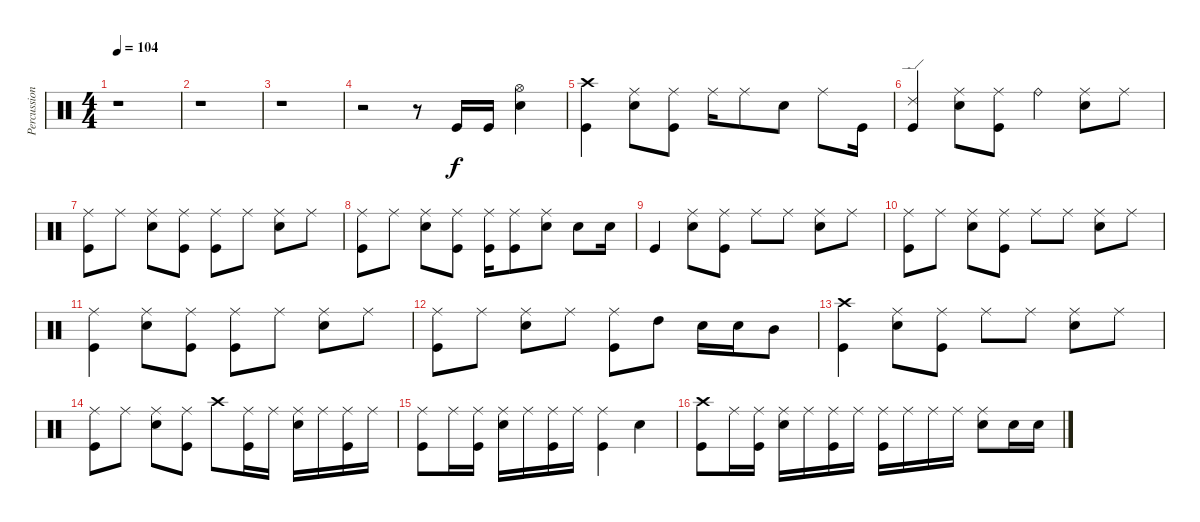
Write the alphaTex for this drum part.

\track ("Percussion" "Percussion") {instrument percussion}
\staff {score}
\articulation defaults
\ts (4 4)
\tempo 104
\clef neutral
\ks c
r.1{dy f} |
r.1 |
r.1 |
r.2 r.8 "Kick (hit)".16 "Kick (hit)".16 ("Hi-Hat (open)" "Snare (hit) 2").4 |
("Crash high (hit)" "Kick (hit)").4 ("Ride (middle)" "Snare (hit) 2").8 ("Ride (middle)" "Kick (hit)").8 "Ride (middle)".16 "Ride (middle)".8 "Snare (hit) 2".8 "Ride (middle)".8 "Kick (hit)".16 |
("Ride (edge) 2" "Kick (hit)").4 ("Ride (middle)" "Snare (hit) 2").8 ("Ride (middle)" "Kick (hit)").8 "Ride (bell)".4 ("Ride (middle)" "Snare (hit) 2").8 "Ride (middle)".8 |
("Ride (middle)" "Kick (hit)").8 "Ride (middle)".8 ("Ride (middle)" "Snare (hit) 2").8 ("Ride (middle)" "Kick (hit)").8 ("Ride (middle)" "Kick (hit)").8 "Ride (middle)".8 ("Ride (middle)" "Snare (hit) 2").8 "Ride (middle)".8 |
("Ride (middle)" "Kick (hit)").8 "Ride (middle)".8 ("Ride (middle)" "Snare (hit) 2").8 ("Ride (middle)" "Kick (hit)").8 ("Ride (middle)" "Kick (hit)").16 ("Ride (middle)" "Kick (hit)").8 ("Ride (middle)" "Snare (hit) 2").8 "Snare (hit) 2".8 "Snare (hit) 2".16 |
"Kick (hit)".4 ("Ride (middle)" "Snare (hit) 2").8 ("Ride (middle)" "Kick (hit)").8 "Ride (middle)".8 "Ride (middle)".8 ("Ride (middle)" "Snare (hit) 2").8 "Ride (middle)".8 |
("Ride (middle)" "Kick (hit)").8 "Ride (middle)".8 ("Ride (middle)" "Snare (hit) 2").8 ("Ride (middle)" "Kick (hit)").8 "Ride (middle)".8 "Ride (middle)".8 ("Ride (middle)" "Snare (hit) 2").8 "Ride (middle)".8 |
("Ride (middle)" "Kick (hit)").4 ("Ride (middle)" "Snare (hit) 2").8 ("Ride (middle)" "Kick (hit)").8 ("Ride (middle)" "Kick (hit)").8 "Ride (middle)".8 ("Ride (middle)" "Snare (hit) 2").8 "Ride (middle)".8 |
("Ride (middle)" "Kick (hit)").8 "Ride (middle)".8 ("Ride (middle)" "Snare (hit) 2").8 "Ride (middle)".8 ("Ride (middle)" "Kick (hit)").8 "High Tom (hit)".8 "Snare (hit) 2".16 "Snare (hit) 2".16 "Mid Tom (hit)".8 |
("Crash high (hit)" "Kick (hit)").4 ("Ride (middle)" "Snare (hit) 2").8 ("Ride (middle)" "Kick (hit)").8 "Ride (middle)".8 "Ride (middle)".8 ("Ride (middle)" "Snare (hit) 2").8 "Ride (middle)".8 |
("Ride (middle)" "Kick (hit)").8 "Ride (middle)".8 ("Ride (middle)" "Snare (hit) 2").8 ("Ride (middle)" "Kick (hit)").8 "Crash high (hit)".8 ("Ride (middle)" "Kick (hit)").16 "Ride (middle)".16 ("Ride (middle)" "Snare (hit) 2").16 "Ride (middle)".16 ("Ride (middle)" "Kick (hit)").16 "Ride (middle)".16 |
("Ride (middle)" "Kick (hit)").8 "Ride (middle)".16 ("Ride (middle)" "Kick (hit)").16 ("Ride (middle)" "Snare (hit) 2").16 "Ride (middle)".16 ("Ride (middle)" "Kick (hit)").16 "Ride (middle)".16 ("Ride (middle)" "Kick (hit)").4 "Snare (hit) 2".4 |
("Crash high (hit)" "Kick (hit)").8 "Ride (middle)".16 ("Ride (middle)" "Kick (hit)").16 ("Ride (middle)" "Snare (hit) 2").16 "Ride (middle)".16 ("Ride (middle)" "Kick (hit)").16 "Ride (middle)".16 ("Ride (middle)" "Kick (hit)").16 "Ride (middle)".16 "Ride (middle)".16 "Ride (middle)".16 ("Ride (middle)" "Snare (hit) 2").8 "Snare (hit) 2".16 "Snare (hit) 2".16
